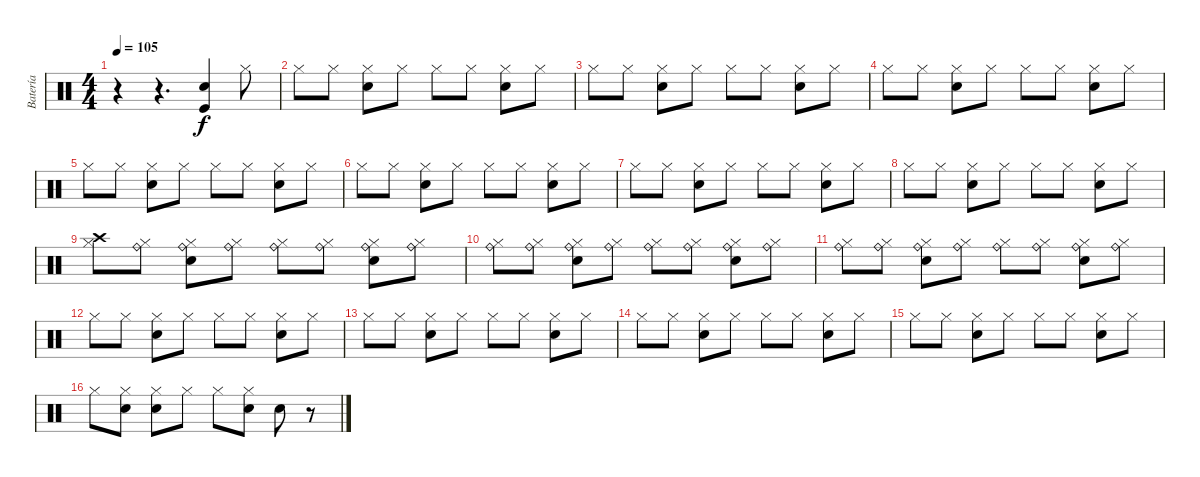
\track ("Batería" "Batería") {instrument percussion}
\staff {score}
\articulation defaults
\ts (4 4)
\tempo 105
\clef neutral
\ks c
r.4{dy f} r.4{d} ("Kick (hit)" "Snare (hit) 2").4 "Hi-Hat (closed)".8 |
"Hi-Hat (closed)".8 "Hi-Hat (closed)".8 ("Snare (hit) 2" "Hi-Hat (closed)").8 "Hi-Hat (closed)".8 "Hi-Hat (closed)".8 "Hi-Hat (closed)".8 ("Snare (hit) 2" "Hi-Hat (closed)").8 "Hi-Hat (closed)".8 |
"Hi-Hat (closed)".8 "Hi-Hat (closed)".8 ("Snare (hit) 2" "Hi-Hat (closed)").8 "Hi-Hat (closed)".8 "Hi-Hat (closed)".8 "Hi-Hat (closed)".8 ("Snare (hit) 2" "Hi-Hat (closed)").8 "Hi-Hat (closed)".8 |
"Hi-Hat (closed)".8 "Hi-Hat (closed)".8 ("Snare (hit) 2" "Hi-Hat (closed)").8 "Hi-Hat (closed)".8 "Hi-Hat (closed)".8 "Hi-Hat (closed)".8 ("Snare (hit) 2" "Hi-Hat (closed)").8 "Hi-Hat (closed)".8 |
"Hi-Hat (closed)".8 "Hi-Hat (closed)".8 ("Snare (hit) 2" "Hi-Hat (closed)").8 "Hi-Hat (closed)".8 "Hi-Hat (closed)".8 "Hi-Hat (closed)".8 ("Snare (hit) 2" "Hi-Hat (closed)").8 "Hi-Hat (closed)".8 |
"Hi-Hat (closed)".8 "Hi-Hat (closed)".8 ("Snare (hit) 2" "Hi-Hat (closed)").8 "Hi-Hat (closed)".8 "Hi-Hat (closed)".8 "Hi-Hat (closed)".8 ("Snare (hit) 2" "Hi-Hat (closed)").8 "Hi-Hat (closed)".8 |
"Hi-Hat (closed)".8 "Hi-Hat (closed)".8 ("Snare (hit) 2" "Hi-Hat (closed)").8 "Hi-Hat (closed)".8 "Hi-Hat (closed)".8 "Hi-Hat (closed)".8 ("Snare (hit) 2" "Hi-Hat (closed)").8 "Hi-Hat (closed)".8 |
"Hi-Hat (closed)".8 "Hi-Hat (closed)".8 ("Snare (hit) 2" "Hi-Hat (closed)").8 "Hi-Hat (closed)".8 "Hi-Hat (closed)".8 "Hi-Hat (closed)".8 ("Snare (hit) 2" "Hi-Hat (closed)").8 "Hi-Hat (closed)".8 |
("Hi-Hat (closed)" "Crash high (hit)").8 ("Hi-Hat (closed)" "Ride (bell)").8 ("Snare (hit) 2" "Hi-Hat (closed)" "Ride (bell)").8 ("Hi-Hat (closed)" "Ride (bell)").8 ("Hi-Hat (closed)" "Ride (bell)").8 ("Hi-Hat (closed)" "Ride (bell)").8 ("Snare (hit) 2" "Hi-Hat (closed)" "Ride (bell)").8 ("Hi-Hat (closed)" "Ride (bell)").8 |
("Hi-Hat (closed)" "Ride (bell)").8 ("Hi-Hat (closed)" "Ride (bell)").8 ("Snare (hit) 2" "Hi-Hat (closed)" "Ride (bell)").8 ("Hi-Hat (closed)" "Ride (bell)").8 ("Hi-Hat (closed)" "Ride (bell)").8 ("Hi-Hat (closed)" "Ride (bell)").8 ("Snare (hit) 2" "Hi-Hat (closed)" "Ride (bell)").8 ("Hi-Hat (closed)" "Ride (bell)").8 |
("Hi-Hat (closed)" "Ride (bell)").8 ("Hi-Hat (closed)" "Ride (bell)").8 ("Snare (hit) 2" "Hi-Hat (closed)" "Ride (bell)").8 ("Hi-Hat (closed)" "Ride (bell)").8 ("Hi-Hat (closed)" "Ride (bell)").8 ("Hi-Hat (closed)" "Ride (bell)").8 ("Snare (hit) 2" "Hi-Hat (closed)" "Ride (bell)").8 ("Hi-Hat (closed)" "Ride (bell)").8 |
"Hi-Hat (closed)".8 "Hi-Hat (closed)".8 ("Snare (hit) 2" "Hi-Hat (closed)").8 "Hi-Hat (closed)".8 "Hi-Hat (closed)".8 "Hi-Hat (closed)".8 ("Snare (hit) 2" "Hi-Hat (closed)").8 "Hi-Hat (closed)".8 |
"Hi-Hat (closed)".8 "Hi-Hat (closed)".8 ("Snare (hit) 2" "Hi-Hat (closed)").8 "Hi-Hat (closed)".8 "Hi-Hat (closed)".8 "Hi-Hat (closed)".8 ("Snare (hit) 2" "Hi-Hat (closed)").8 "Hi-Hat (closed)".8 |
"Hi-Hat (closed)".8 "Hi-Hat (closed)".8 ("Snare (hit) 2" "Hi-Hat (closed)").8 "Hi-Hat (closed)".8 "Hi-Hat (closed)".8 "Hi-Hat (closed)".8 ("Snare (hit) 2" "Hi-Hat (closed)").8 "Hi-Hat (closed)".8 |
"Hi-Hat (closed)".8 "Hi-Hat (closed)".8 ("Snare (hit) 2" "Hi-Hat (closed)").8 "Hi-Hat (closed)".8 "Hi-Hat (closed)".8 "Hi-Hat (closed)".8 ("Snare (hit) 2" "Hi-Hat (closed)").8 "Hi-Hat (closed)".8 |
"Hi-Hat (closed)".8 ("Snare (hit) 2" "Hi-Hat (closed)").8 ("Snare (hit) 2" "Hi-Hat (closed)").8 "Hi-Hat (closed)".8 "Hi-Hat (closed)".8 ("Snare (hit) 2" "Hi-Hat (closed)").8 "Snare (hit) 2".8 r.8
